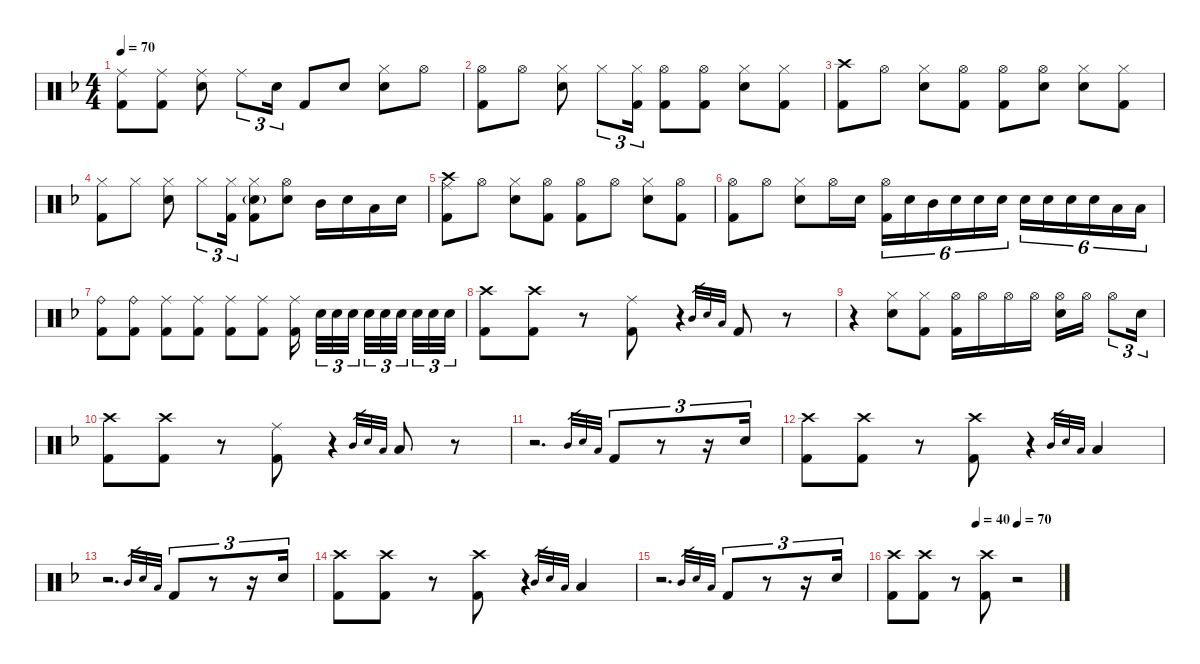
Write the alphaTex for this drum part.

\defaultSystemsLayout 4
\hideDynamics
\bracketExtendMode nobrackets
\singleTrackTrackNamePolicy hidden
\multiTrackTrackNamePolicy hidden
\otherSystemsTrackNameOrientation horizontal
\track ("Percussion" "drm.") {defaultSystemsLayout 4 instrument percussion}
\staff {score}
\articulation defaults
\ts (4 4)
\tempo 70
\clef neutral
\ks f
("Ride (middle)"{acc forcenatural} "Kick (hit) 2"{acc forcenatural}).8{dy f beam Down} ("Ride (middle)"{acc forcenatural} "Kick (hit) 2"{acc forcenatural}).8{beam Down} ("Ride (middle)"{acc forcenatural} "Snare (hit) 2"{acc forcenatural}).8{beam Down} "Ride (middle)"{acc forcenatural}.8{tu (3 2) beam Down} "Snare (hit) 2"{acc forcenatural}.16{tu (3 2) beam Down} "Kick (hit) 2"{acc forcenatural}.8{beam Up} "Snare (hit) 2"{acc forcenatural}.8{beam Up} ("Hi-Hat (closed)"{acc forcenatural} "Snare (hit) 2"{acc forcenatural}).8{beam Down} "Hi-Hat (open)"{acc forcenatural}.8{beam Down} |
("Hi-Hat (open)"{acc forcenatural} "Kick (hit) 2"{acc forcenatural}).8{beam Down} "Hi-Hat (open)"{acc forcenatural}.8{beam Down} ("Hi-Hat (closed)"{acc forcenatural} "Snare (hit) 2"{acc forcenatural}).8{beam Down} "Hi-Hat (closed)"{acc forcenatural}.8{tu (3 2) beam Down} ("Hi-Hat (closed)"{acc forcenatural} "Kick (hit) 2"{acc forcenatural}).16{tu (3 2) beam Down} ("Hi-Hat (open)"{acc forcenatural} "Kick (hit) 2"{acc forcenatural}).8{beam Down} ("Hi-Hat (open)"{acc forcenatural} "Kick (hit) 2"{acc forcenatural}).8{beam Down} ("Hi-Hat (closed)"{acc forcenatural} "Snare (hit) 2"{acc forcenatural}).8{beam Down} ("Hi-Hat (closed)"{acc forcenatural} "Kick (hit) 2"{acc forcenatural}).8{beam Down} |
("Crash high (hit)"{acc forcenatural} "Kick (hit) 2"{acc forcenatural}).8{beam Down} "Hi-Hat (open)"{acc forcenatural}.8{beam Down} ("Hi-Hat (closed)"{acc forcenatural} "Snare (hit) 2"{acc forcenatural}).8{beam Down} ("Hi-Hat (open)"{acc forcenatural} "Kick (hit) 2"{acc forcenatural}).8{beam Down} ("Hi-Hat (open)"{acc forcenatural} "Kick (hit) 2"{acc forcenatural}).8{beam Down} ("Hi-Hat (open)"{acc forcenatural} "Snare (hit) 2"{acc forcenatural}).8{beam Down} ("Hi-Hat (closed)"{acc forcenatural} "Snare (hit) 2"{acc forcenatural}).8{beam Down} ("Hi-Hat (closed)"{acc forcenatural} "Kick (hit) 2"{acc forcenatural}).8{beam Down} |
("Hi-Hat (closed)"{acc forcenatural} "Kick (hit) 2"{acc forcenatural}).8{beam Down} "Hi-Hat (closed)"{acc forcenatural}.8{beam Down} ("Hi-Hat (closed)"{acc forcenatural} "Snare (hit) 2"{acc forcenatural}).8{beam Down} "Hi-Hat (closed)"{acc forcenatural}.8{tu (3 2) beam Down} ("Hi-Hat (closed)"{acc forcenatural} "Kick (hit) 2"{acc forcenatural}).16{tu (3 2) beam Down} ("Hi-Hat (closed)"{acc forcenatural} "Snare (hit) 2"{g acc forcenatural} "Kick (hit) 2"{acc forcenatural}).8{beam Down} ("Hi-Hat (open)"{acc forcenatural} "Snare (hit) 2"{acc forcenatural}).8{beam Down} "Mid Tom (hit)"{acc forcenatural}.16{beam Down} "Snare (hit) 2"{acc forcenatural}.16{beam Down} "Low Tom (hit)"{acc forcenatural}.16{beam Down} "Snare (hit) 2"{acc forcenatural}.16{beam Down} |
("Crash high (hit)"{acc forcenatural} "Ride (middle)"{acc forcenatural} "Kick (hit) 2"{acc forcenatural}).8{beam Down} "Hi-Hat (open)"{acc forcenatural}.8{beam Down} ("Hi-Hat (closed)"{acc forcenatural} "Snare (hit) 2"{acc forcenatural}).8{beam Down} ("Hi-Hat (open)"{acc forcenatural} "Kick (hit) 2"{acc forcenatural}).8{beam Down} ("Hi-Hat (open)"{acc forcenatural} "Kick (hit) 2"{acc forcenatural}).8{beam Down} "Hi-Hat (open)"{acc forcenatural}.8{beam Down} ("Hi-Hat (closed)"{acc forcenatural} "Snare (hit) 2"{acc forcenatural}).8{beam Down} ("Hi-Hat (open)"{acc forcenatural} "Kick (hit) 2"{acc forcenatural}).8{beam Down} |
("Hi-Hat (open)"{acc forcenatural} "Kick (hit) 2"{acc forcenatural}).8{beam Down} "Hi-Hat (open)"{acc forcenatural}.8{beam Down} ("Hi-Hat (closed)"{acc forcenatural} "Snare (hit) 2"{acc forcenatural}).8{beam Down} "Hi-Hat (open)"{acc forcenatural}.16{beam Down} "Snare (hit) 2"{acc forcenatural}.16{beam Down} ("Hi-Hat (open)"{acc forcenatural} "Kick (hit) 2"{acc forcenatural}).16{tu (6 4) beam Down} "Snare (hit) 2"{acc forcenatural}.16{tu (6 4) beam Down} "Mid Tom (hit)"{acc forcenatural}.16{tu (6 4) beam Down} "Snare (hit) 2"{acc forcenatural}.16{tu (6 4) beam Down} "Snare (hit) 2"{acc forcenatural}.16{tu (6 4) beam Down} "Snare (hit) 2"{acc forcenatural}.16{tu (6 4) beam Down} "Snare (hit) 2"{acc forcenatural}.16{tu (6 4) beam Down} "Snare (hit) 2"{acc forcenatural}.16{tu (6 4) beam Down} "Snare (hit) 2"{acc forcenatural}.16{tu (6 4) beam Down} "Snare (hit) 2"{acc forcenatural}.16{tu (6 4) beam Down} "Low Tom (hit)"{acc forcenatural}.16{tu (6 4) beam Down} "Low Tom (hit)"{acc forcenatural}.16{tu (6 4) beam Down} |
("Ride (bell)"{acc forcenatural} "Kick (hit) 2"{acc forcenatural}).8{beam Down} ("Ride (bell)"{acc forcenatural} "Kick (hit) 2"{acc forcenatural}).8{beam Down} ("Ride (middle)"{acc forcenatural} "Kick (hit) 2"{acc forcenatural}).8{beam Down} ("Ride (middle)"{acc forcenatural} "Kick (hit) 2"{acc forcenatural}).8{beam Down} ("Ride (middle)"{acc forcenatural} "Kick (hit) 2"{acc forcenatural}).8{beam Down} ("Ride (middle)"{acc forcenatural} "Kick (hit) 2"{acc forcenatural}).8{beam Down} ("Ride (middle)"{acc forcenatural} "Kick (hit) 2"{acc forcenatural}).16{beam Down} "Snare (hit) 2"{acc forcenatural}.32{tu (3 2) beam Down} "Snare (hit) 2"{acc forcenatural}.32{tu (3 2) beam Down} "Snare (hit) 2"{acc forcenatural}.32{tu (3 2) beam Down} "Snare (hit) 2"{acc forcenatural}.32{tu (3 2) beam Down} "Snare (hit) 2"{acc forcenatural}.32{tu (3 2) beam Down} "Snare (hit) 2"{acc forcenatural}.32{tu (3 2) beam Down} "Snare (hit) 2"{acc forcenatural}.32{tu (3 2) beam Down} "Snare (hit) 2"{acc forcenatural}.32{tu (3 2) beam Down} "Snare (hit) 2"{acc forcenatural}.32{tu (3 2) beam Down} |
("Crash high (hit)"{acc forcenatural} "Kick (hit) 2"{acc forcenatural}).8{beam Down} ("Crash high (hit)"{acc forcenatural} "Kick (hit) 2"{acc forcenatural}).8{beam Down} r.8{beam Down} ("Ride (middle)"{acc forcenatural} "Kick (hit) 2"{acc forcenatural}).8{beam Down} r.4{beam Down} "Mid Tom (hit)"{acc forcenatural}.32{gr dy pp beam Up} "Snare (hit) 2"{acc forcenatural}.32{gr beam Up} "Low Tom (hit)"{acc forcenatural}.32{gr beam Up} "Kick (hit) 2"{acc forcenatural}.8{dy f beam Up} r.8{beam Up} |
r.4{beam Down} ("Hi-Hat (closed)"{acc forcenatural} "Snare (hit) 2"{acc forcenatural}).8{beam Down} ("Hi-Hat (closed)"{acc forcenatural} "Kick (hit) 2"{acc forcenatural}).8{beam Down} ("Hi-Hat (open)"{acc forcenatural} "Kick (hit) 2"{acc forcenatural}).16{beam Down} "Hi-Hat (open)"{acc forcenatural}.16{beam Down} "Hi-Hat (open)"{acc forcenatural}.16{beam Down} "Hi-Hat (open)"{acc forcenatural}.16{beam Down} ("Hi-Hat (open)"{acc forcenatural} "Snare (hit) 2"{acc forcenatural}).16{beam Down} "Hi-Hat (open)"{acc forcenatural}.16{beam Down} "Hi-Hat (open)"{acc forcenatural}.8{tu (3 2) beam Down} "Snare (hit) 2"{acc forcenatural}.16{tu (3 2) beam Down} |
("Crash high (hit)"{acc forcenatural} "Kick (hit) 2"{acc forcenatural}).8{beam Down} ("Crash high (hit)"{acc forcenatural} "Kick (hit) 2"{acc forcenatural}).8{beam Down} r.8{beam Down} ("Ride (middle)"{acc forcenatural} "Kick (hit) 2"{acc forcenatural}).8{beam Down} r.4{beam Down} "Mid Tom (hit)"{acc forcenatural}.32{gr dy pp beam Up} "Snare (hit) 2"{acc forcenatural}.32{gr beam Up} "Low Tom (hit)"{acc forcenatural}.32{gr beam Up} "Low Floor Tom (hit)"{acc forcenatural}.8{dy f beam Up} r.8{beam Up} |
r.2{d beam Down} "Mid Tom (hit)"{acc forcenatural}.32{gr dy pp beam Up} "Snare (hit) 2"{acc forcenatural}.32{gr beam Up} "Low Tom (hit)"{acc forcenatural}.32{gr beam Up} "Kick (hit) 2"{acc forcenatural}.8{tu (3 2) dy f beam Up} r.8{tu (3 2) beam Up} r.16{tu (3 2) beam Up} "Snare (hit) 2"{acc forcenatural}.16{tu (3 2) beam Up} |
("Crash high (hit)"{acc forcenatural} "Kick (hit) 2"{acc forcenatural}).8{dy mp beam Down} ("Crash high (hit)"{acc forcenatural} "Kick (hit) 2"{acc forcenatural}).8{beam Down} r.8{beam Down} ("Crash high (hit)"{acc forcenatural} "Kick (hit) 2"{acc forcenatural}).8{beam Down} r.4{beam Down} "Mid Tom (hit)"{acc forcenatural}.32{gr dy pp beam Up} "Snare (hit) 2"{acc forcenatural}.32{gr beam Up} "Low Tom (hit)"{acc forcenatural}.32{gr beam Up} "Low Floor Tom (hit)"{acc forcenatural}.4{dy f beam Up} |
r.2{d beam Down} "Mid Tom (hit)"{acc forcenatural}.32{gr dy pp beam Up} "Snare (hit) 2"{acc forcenatural}.32{gr beam Up} "Low Tom (hit)"{acc forcenatural}.32{gr beam Up} "Kick (hit) 2"{acc forcenatural}.8{tu (3 2) dy f beam Up} r.8{tu (3 2) beam Up} r.16{tu (3 2) beam Up} "Snare (hit) 2"{acc forcenatural}.16{tu (3 2) beam Up} |
("Crash high (hit)"{acc forcenatural} "Kick (hit) 2"{acc forcenatural}).8{dy mp beam Down} ("Crash high (hit)"{acc forcenatural} "Kick (hit) 2"{acc forcenatural}).8{beam Down} r.8{beam Down} ("Crash high (hit)"{acc forcenatural} "Kick (hit) 2"{acc forcenatural}).8{beam Down} r.4{beam Down} "Mid Tom (hit)"{acc forcenatural}.32{gr dy pp beam Up} "Snare (hit) 2"{acc forcenatural}.32{gr beam Up} "Low Tom (hit)"{acc forcenatural}.32{gr beam Up} "Low Floor Tom (hit)"{acc forcenatural}.4{dy f beam Up} |
r.2{d beam Down} "Mid Tom (hit)"{acc forcenatural}.32{gr dy pp beam Up} "Snare (hit) 2"{acc forcenatural}.32{gr beam Up} "Low Tom (hit)"{acc forcenatural}.32{gr beam Up} "Kick (hit) 2"{acc forcenatural}.8{tu (3 2) dy f beam Up} r.8{tu (3 2) beam Up} r.16{tu (3 2) beam Up} "Snare (hit) 2"{acc forcenatural}.16{tu (3 2) beam Up} |
\tempo (40 0.5)
\tempo (70 0.75)
("Crash high (hit)"{acc forcenatural} "Kick (hit) 2"{acc forcenatural}).8{dy mp beam Down} ("Crash high (hit)"{acc forcenatural} "Kick (hit) 2"{acc forcenatural}).8{beam Down} r.8{beam Down} ("Crash high (hit)"{acc forcenatural} "Kick (hit) 2"{acc forcenatural}).8{beam Down} r.2{beam Down}
